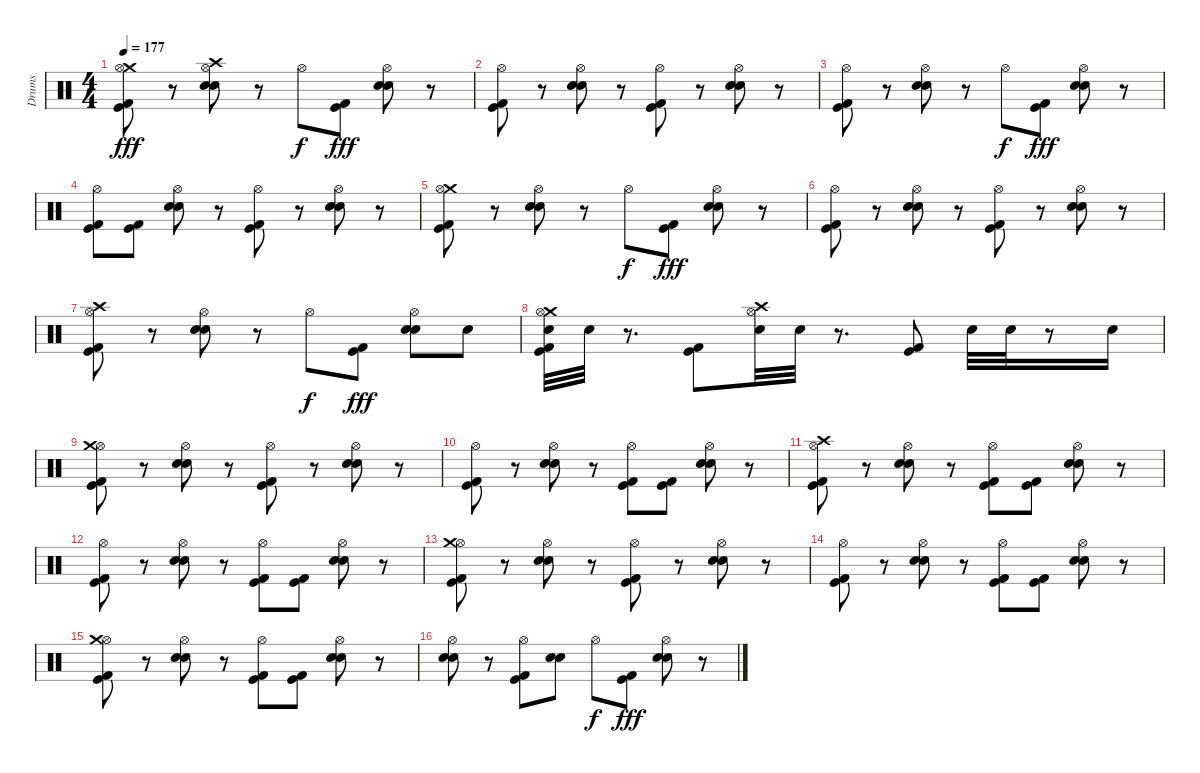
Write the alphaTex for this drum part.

\track ("Drums" "Drums") {instrument percussion}
\staff {score}
\articulation defaults
\ts (4 4)
\tempo 177
\clef neutral
\ks c
("Crash medium (hit)" "Hi-Hat (open)" "Kick (hit) 2" "Kick (hit)").8{dy fff} r.8 ("Crash high (hit)" "Hi-Hat (open)" "Snare (hit) 2" "Electric Snare (hit)").8 r.8 "Hi-Hat (open)".8{dy f} ("Kick (hit) 2" "Kick (hit)").8{dy fff} ("Hi-Hat (open)" "Electric Snare (hit)" "Snare (hit) 2").8 r.8 |
("Hi-Hat (open)" "Kick (hit) 2" "Kick (hit)").8 r.8 ("Hi-Hat (open)" "Snare (hit) 2" "Electric Snare (hit)").8 r.8 ("Hi-Hat (open)" "Kick (hit) 2" "Kick (hit)").8 r.8 ("Hi-Hat (open)" "Electric Snare (hit)" "Snare (hit) 2").8 r.8 |
("Hi-Hat (open)" "Kick (hit) 2" "Kick (hit)").8 r.8 ("Hi-Hat (open)" "Snare (hit) 2" "Electric Snare (hit)").8 r.8 "Hi-Hat (open)".8{dy f} ("Kick (hit) 2" "Kick (hit)").8{dy fff} ("Hi-Hat (open)" "Electric Snare (hit)" "Snare (hit) 2").8 r.8 |
("Hi-Hat (open)" "Kick (hit) 2" "Kick (hit)").8 ("Kick (hit) 2" "Kick (hit)").8 ("Hi-Hat (open)" "Snare (hit) 2" "Electric Snare (hit)").8 r.8 ("Hi-Hat (open)" "Kick (hit) 2" "Kick (hit)").8 r.8 ("Hi-Hat (open)" "Electric Snare (hit)" "Snare (hit) 2").8 r.8 |
("Crash medium (hit)" "Hi-Hat (open)" "Kick (hit) 2" "Kick (hit)").8 r.8 ("Hi-Hat (open)" "Snare (hit) 2" "Electric Snare (hit)").8 r.8 "Hi-Hat (open)".8{dy f} ("Kick (hit) 2" "Kick (hit)").8{dy fff} ("Hi-Hat (open)" "Electric Snare (hit)" "Snare (hit) 2").8 r.8 |
("Hi-Hat (open)" "Kick (hit) 2" "Kick (hit)").8 r.8 ("Hi-Hat (open)" "Snare (hit) 2" "Electric Snare (hit)").8 r.8 ("Hi-Hat (open)" "Kick (hit) 2" "Kick (hit)").8 r.8 ("Hi-Hat (open)" "Electric Snare (hit)" "Snare (hit) 2").8 r.8 |
("Hi-Hat (open)" "Kick (hit) 2" "Kick (hit)" "Crash high (hit)").8 r.8 ("Hi-Hat (open)" "Snare (hit) 2" "Electric Snare (hit)").8 r.8 "Hi-Hat (open)".8{dy f} ("Kick (hit) 2" "Kick (hit)").8{dy fff} ("Hi-Hat (open)" "Electric Snare (hit)" "Snare (hit) 2").8 "Electric Snare (hit)".8 |
("Electric Snare (hit)" "Kick (hit) 2" "Kick (hit)" "Crash medium (hit)" "Hi-Hat (open)").32 "Electric Snare (hit)".32 r.8{d} ("Kick (hit) 2" "Kick (hit)").8 ("Electric Snare (hit)" "Crash high (hit)" "Hi-Hat (open)").32 "Electric Snare (hit)".32 r.8{d} ("Kick (hit) 2" "Kick (hit)").8 "Electric Snare (hit)".32 "Electric Snare (hit)".32 r.8 "Electric Snare (hit)".16 |
("Hi-Hat (open)" "Crash medium (hit)" "Kick (hit) 2" "Kick (hit)").8 r.8 ("Hi-Hat (open)" "Electric Snare (hit)" "Snare (hit) 2").8 r.8 ("Hi-Hat (open)" "Kick (hit) 2" "Kick (hit)").8 r.8 ("Hi-Hat (open)" "Electric Snare (hit)" "Snare (hit) 2").8 r.8 |
("Hi-Hat (open)" "Kick (hit) 2" "Kick (hit)").8 r.8 ("Hi-Hat (open)" "Electric Snare (hit)" "Snare (hit) 2").8 r.8 ("Hi-Hat (open)" "Kick (hit) 2" "Kick (hit)").8 ("Kick (hit)" "Kick (hit) 2").8 ("Hi-Hat (open)" "Electric Snare (hit)" "Snare (hit) 2").8 r.8 |
("Hi-Hat (open)" "Kick (hit) 2" "Kick (hit)" "Crash high (hit)").8 r.8 ("Hi-Hat (open)" "Electric Snare (hit)" "Snare (hit) 2").8 r.8 ("Hi-Hat (open)" "Kick (hit) 2" "Kick (hit)").8 ("Kick (hit) 2" "Kick (hit)").8 ("Hi-Hat (open)" "Electric Snare (hit)" "Snare (hit) 2").8 r.8 |
("Hi-Hat (open)" "Kick (hit) 2" "Kick (hit)").8 r.8 ("Hi-Hat (open)" "Electric Snare (hit)" "Snare (hit) 2").8 r.8 ("Hi-Hat (open)" "Kick (hit) 2" "Kick (hit)").8 ("Kick (hit) 2" "Kick (hit)").8 ("Hi-Hat (open)" "Electric Snare (hit)" "Snare (hit) 2").8 r.8 |
("Hi-Hat (open)" "Crash medium (hit)" "Kick (hit) 2" "Kick (hit)").8 r.8 ("Hi-Hat (open)" "Electric Snare (hit)" "Snare (hit) 2").8 r.8 ("Hi-Hat (open)" "Kick (hit) 2" "Kick (hit)").8 r.8 ("Hi-Hat (open)" "Electric Snare (hit)" "Snare (hit) 2").8 r.8 |
("Hi-Hat (open)" "Kick (hit) 2" "Kick (hit)").8 r.8 ("Hi-Hat (open)" "Electric Snare (hit)" "Snare (hit) 2").8 r.8 ("Hi-Hat (open)" "Kick (hit) 2" "Kick (hit)").8 ("Kick (hit)" "Kick (hit) 2").8 ("Hi-Hat (open)" "Electric Snare (hit)" "Snare (hit) 2").8 r.8 |
("Hi-Hat (open)" "Kick (hit) 2" "Kick (hit)" "Crash medium (hit)").8 r.8 ("Hi-Hat (open)" "Electric Snare (hit)" "Snare (hit) 2").8 r.8 ("Hi-Hat (open)" "Kick (hit) 2" "Kick (hit)").8 ("Kick (hit) 2" "Kick (hit)").8 ("Hi-Hat (open)" "Electric Snare (hit)" "Snare (hit) 2").8 r.8 |
("Hi-Hat (open)" "Electric Snare (hit)" "Snare (hit) 2").8 r.8 ("Hi-Hat (open)" "Kick (hit) 2" "Kick (hit)").8 ("Electric Snare (hit)" "Snare (hit) 2").8 "Hi-Hat (open)".8{dy f} ("Kick (hit) 2" "Kick (hit)").8{dy fff} ("Hi-Hat (open)" "Electric Snare (hit)" "Snare (hit) 2").8 r.8
